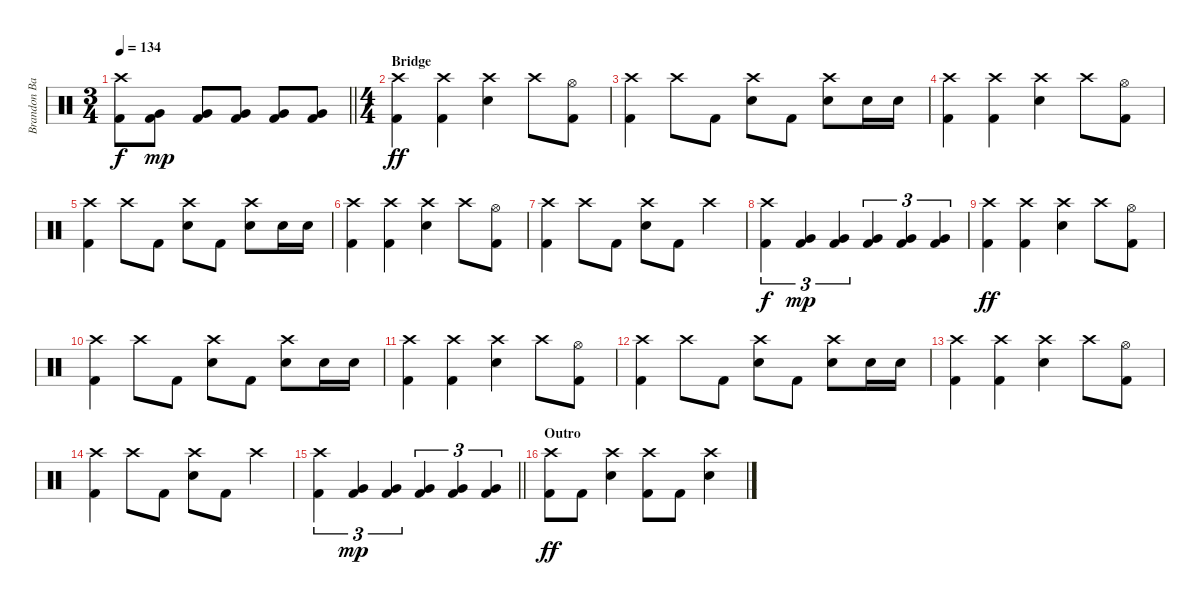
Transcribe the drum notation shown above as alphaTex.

\track ("Brandon Barnes - Drums" "Brandon Ba") {instrument percussion}
\staff {score}
\articulation defaults
\ts (3 4)
\tempo 134
\clef neutral
\barLineRight lightlight
\ks c
("Kick (hit) 2" "Crash high (hit)").8{dy f} ("Very Low Tom (hit)" "Kick (hit) 2").8{dy mp} ("Very Low Tom (hit)" "Kick (hit) 2").8 ("Very Low Tom (hit)" "Kick (hit) 2").8 ("Very Low Tom (hit)" "Kick (hit) 2").8 ("Very Low Tom (hit)" "Kick (hit) 2").8 |
\ts (4 4)
\section ("" "Bridge")
("Kick (hit) 2" "Crash high (hit)").4{dy ff} ("Kick (hit) 2" "Crash high (hit)").4 ("Snare (hit) 2" "Crash high (hit)").4 "Crash high (hit)".8 ("Kick (hit) 2" "Hi-Hat (open)").8 |
("Kick (hit) 2" "Crash high (hit)").4 "Crash high (hit)".8 "Kick (hit) 2".8 ("Snare (hit) 2" "Crash high (hit)").8 "Kick (hit) 2".8 ("Snare (hit) 2" "Crash high (hit)").8 "Snare (hit) 2".16 "Snare (hit) 2".16 |
("Kick (hit) 2" "Crash high (hit)").4 ("Kick (hit) 2" "Crash high (hit)").4 ("Snare (hit) 2" "Crash high (hit)").4 "Crash high (hit)".8 ("Kick (hit) 2" "Hi-Hat (open)").8 |
("Kick (hit) 2" "Crash high (hit)").4 "Crash high (hit)".8 "Kick (hit) 2".8 ("Snare (hit) 2" "Crash high (hit)").8 "Kick (hit) 2".8 ("Snare (hit) 2" "Crash high (hit)").8 "Snare (hit) 2".16 "Snare (hit) 2".16 |
("Kick (hit) 2" "Crash high (hit)").4 ("Kick (hit) 2" "Crash high (hit)").4 ("Snare (hit) 2" "Crash high (hit)").4 "Crash high (hit)".8 ("Kick (hit) 2" "Hi-Hat (open)").8 |
("Kick (hit) 2" "Crash high (hit)").4 "Crash high (hit)".8 "Kick (hit) 2".8 ("Snare (hit) 2" "Crash high (hit)").8 "Kick (hit) 2".8 "Crash high (hit)".4 |
("Kick (hit) 2" "Crash high (hit)").4{tu (3 2) dy f} ("Very Low Tom (hit)" "Kick (hit) 2").4{tu (3 2) dy mp} ("Very Low Tom (hit)" "Kick (hit) 2").4{tu (3 2)} ("Very Low Tom (hit)" "Kick (hit) 2").4{tu (3 2)} ("Very Low Tom (hit)" "Kick (hit) 2").4{tu (3 2)} ("Very Low Tom (hit)" "Kick (hit) 2").4{tu (3 2)} |
("Kick (hit) 2" "Crash high (hit)").4{dy ff} ("Kick (hit) 2" "Crash high (hit)").4 ("Snare (hit) 2" "Crash high (hit)").4 "Crash high (hit)".8 ("Kick (hit) 2" "Hi-Hat (open)").8 |
("Kick (hit) 2" "Crash high (hit)").4 "Crash high (hit)".8 "Kick (hit) 2".8 ("Snare (hit) 2" "Crash high (hit)").8 "Kick (hit) 2".8 ("Snare (hit) 2" "Crash high (hit)").8 "Snare (hit) 2".16 "Snare (hit) 2".16 |
("Kick (hit) 2" "Crash high (hit)").4 ("Kick (hit) 2" "Crash high (hit)").4 ("Snare (hit) 2" "Crash high (hit)").4 "Crash high (hit)".8 ("Kick (hit) 2" "Hi-Hat (open)").8 |
("Kick (hit) 2" "Crash high (hit)").4 "Crash high (hit)".8 "Kick (hit) 2".8 ("Snare (hit) 2" "Crash high (hit)").8 "Kick (hit) 2".8 ("Snare (hit) 2" "Crash high (hit)").8 "Snare (hit) 2".16 "Snare (hit) 2".16 |
("Kick (hit) 2" "Crash high (hit)").4 ("Kick (hit) 2" "Crash high (hit)").4 ("Snare (hit) 2" "Crash high (hit)").4 "Crash high (hit)".8 ("Kick (hit) 2" "Hi-Hat (open)").8 |
("Kick (hit) 2" "Crash high (hit)").4 "Crash high (hit)".8 "Kick (hit) 2".8 ("Snare (hit) 2" "Crash high (hit)").8 "Kick (hit) 2".8 "Crash high (hit)".4 |
\barLineRight lightlight
("Crash high (hit)" "Kick (hit) 2").4{tu (3 2)} ("Very Low Tom (hit)" "Kick (hit) 2").4{tu (3 2) dy mp} ("Very Low Tom (hit)" "Kick (hit) 2").4{tu (3 2)} ("Very Low Tom (hit)" "Kick (hit) 2").4{tu (3 2)} ("Very Low Tom (hit)" "Kick (hit) 2").4{tu (3 2)} ("Very Low Tom (hit)" "Kick (hit) 2").4{tu (3 2)} |
\section ("" "Outro")
("Crash high (hit)" "Kick (hit) 2").8{dy ff} "Kick (hit) 2".8 ("Snare (hit) 2" "Crash high (hit)").4 ("Crash high (hit)" "Kick (hit) 2").8 "Kick (hit) 2".8 ("Snare (hit) 2" "Crash high (hit)").4
